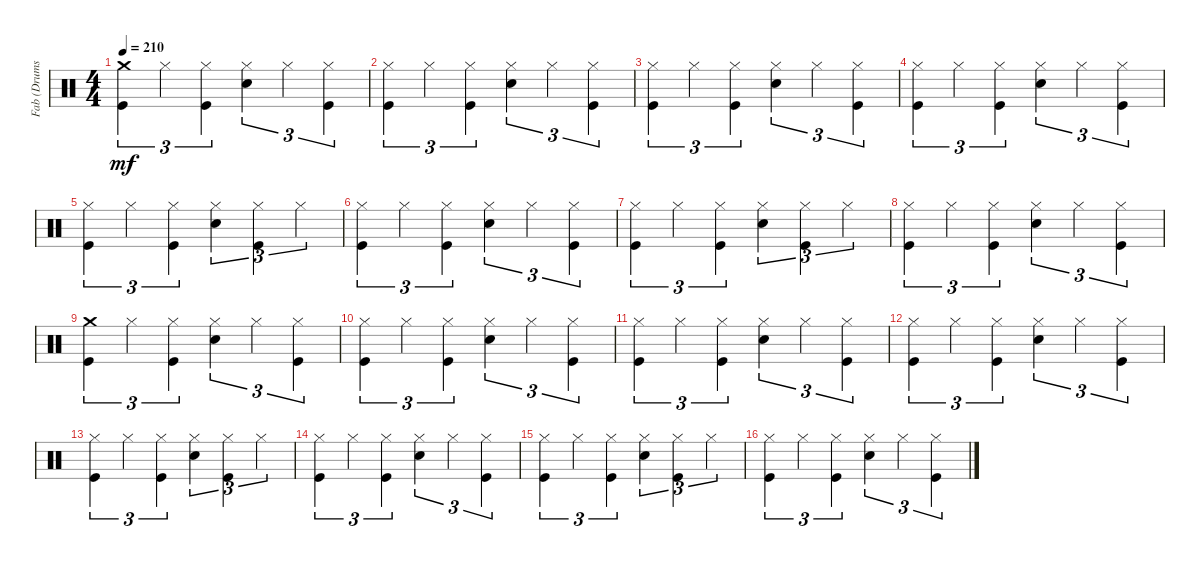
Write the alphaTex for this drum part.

\track ("Fab (Drums)" "Fab (Drums") {instrument percussion}
\staff {score}
\articulation defaults
\ts (4 4)
\tempo 210
\clef neutral
\ks c
("Kick (hit)" "Crash medium (hit)").4{tu (3 2) dy mf} "Hi-Hat (closed)".4{tu (3 2)} ("Hi-Hat (closed)" "Kick (hit)").4{tu (3 2)} ("Hi-Hat (closed)" "Snare (hit) 2").4{tu (3 2)} "Hi-Hat (closed)".4{tu (3 2)} ("Hi-Hat (closed)" "Kick (hit)").4{tu (3 2)} |
("Kick (hit)" "Hi-Hat (closed)").4{tu (3 2)} "Hi-Hat (closed)".4{tu (3 2)} ("Hi-Hat (closed)" "Kick (hit)").4{tu (3 2)} ("Hi-Hat (closed)" "Snare (hit) 2").4{tu (3 2)} "Hi-Hat (closed)".4{tu (3 2)} ("Hi-Hat (closed)" "Kick (hit)").4{tu (3 2)} |
("Kick (hit)" "Hi-Hat (closed)").4{tu (3 2)} "Hi-Hat (closed)".4{tu (3 2)} ("Hi-Hat (closed)" "Kick (hit)").4{tu (3 2)} ("Hi-Hat (closed)" "Snare (hit) 2").4{tu (3 2)} "Hi-Hat (closed)".4{tu (3 2)} ("Hi-Hat (closed)" "Kick (hit)").4{tu (3 2)} |
("Kick (hit)" "Hi-Hat (closed)").4{tu (3 2)} "Hi-Hat (closed)".4{tu (3 2)} ("Hi-Hat (closed)" "Kick (hit)").4{tu (3 2)} ("Hi-Hat (closed)" "Snare (hit) 2").4{tu (3 2)} "Hi-Hat (closed)".4{tu (3 2)} ("Hi-Hat (closed)" "Kick (hit)").4{tu (3 2)} |
("Kick (hit)" "Hi-Hat (closed)").4{tu (3 2)} "Hi-Hat (closed)".4{tu (3 2)} ("Hi-Hat (closed)" "Kick (hit)").4{tu (3 2)} ("Hi-Hat (closed)" "Snare (hit) 2").4{tu (3 2)} ("Hi-Hat (closed)" "Kick (hit)").4{tu (3 2)} "Hi-Hat (closed)".4{tu (3 2)} |
("Kick (hit)" "Hi-Hat (closed)").4{tu (3 2)} "Hi-Hat (closed)".4{tu (3 2)} ("Hi-Hat (closed)" "Kick (hit)").4{tu (3 2)} ("Hi-Hat (closed)" "Snare (hit) 2").4{tu (3 2)} "Hi-Hat (closed)".4{tu (3 2)} ("Hi-Hat (closed)" "Kick (hit)").4{tu (3 2)} |
("Kick (hit)" "Hi-Hat (closed)").4{tu (3 2)} "Hi-Hat (closed)".4{tu (3 2)} ("Hi-Hat (closed)" "Kick (hit)").4{tu (3 2)} ("Hi-Hat (closed)" "Snare (hit) 2").4{tu (3 2)} ("Hi-Hat (closed)" "Kick (hit)").4{tu (3 2)} "Hi-Hat (closed)".4{tu (3 2)} |
("Kick (hit)" "Hi-Hat (closed)").4{tu (3 2)} "Hi-Hat (closed)".4{tu (3 2)} ("Hi-Hat (closed)" "Kick (hit)").4{tu (3 2)} ("Hi-Hat (closed)" "Snare (hit) 2").4{tu (3 2)} "Hi-Hat (closed)".4{tu (3 2)} ("Hi-Hat (closed)" "Kick (hit)").4{tu (3 2)} |
("Kick (hit)" "Crash medium (hit)").4{tu (3 2)} "Hi-Hat (closed)".4{tu (3 2)} ("Hi-Hat (closed)" "Kick (hit)").4{tu (3 2)} ("Hi-Hat (closed)" "Snare (hit) 2").4{tu (3 2)} "Hi-Hat (closed)".4{tu (3 2)} ("Hi-Hat (closed)" "Kick (hit)").4{tu (3 2)} |
("Kick (hit)" "Hi-Hat (closed)").4{tu (3 2)} "Hi-Hat (closed)".4{tu (3 2)} ("Hi-Hat (closed)" "Kick (hit)").4{tu (3 2)} ("Hi-Hat (closed)" "Snare (hit) 2").4{tu (3 2)} "Hi-Hat (closed)".4{tu (3 2)} ("Hi-Hat (closed)" "Kick (hit)").4{tu (3 2)} |
("Kick (hit)" "Hi-Hat (closed)").4{tu (3 2)} "Hi-Hat (closed)".4{tu (3 2)} ("Hi-Hat (closed)" "Kick (hit)").4{tu (3 2)} ("Hi-Hat (closed)" "Snare (hit) 2").4{tu (3 2)} "Hi-Hat (closed)".4{tu (3 2)} ("Hi-Hat (closed)" "Kick (hit)").4{tu (3 2)} |
("Kick (hit)" "Hi-Hat (closed)").4{tu (3 2)} "Hi-Hat (closed)".4{tu (3 2)} ("Hi-Hat (closed)" "Kick (hit)").4{tu (3 2)} ("Hi-Hat (closed)" "Snare (hit) 2").4{tu (3 2)} "Hi-Hat (closed)".4{tu (3 2)} ("Hi-Hat (closed)" "Kick (hit)").4{tu (3 2)} |
("Kick (hit)" "Hi-Hat (closed)").4{tu (3 2)} "Hi-Hat (closed)".4{tu (3 2)} ("Hi-Hat (closed)" "Kick (hit)").4{tu (3 2)} ("Hi-Hat (closed)" "Snare (hit) 2").4{tu (3 2)} ("Hi-Hat (closed)" "Kick (hit)").4{tu (3 2)} "Hi-Hat (closed)".4{tu (3 2)} |
("Kick (hit)" "Hi-Hat (closed)").4{tu (3 2)} "Hi-Hat (closed)".4{tu (3 2)} ("Hi-Hat (closed)" "Kick (hit)").4{tu (3 2)} ("Hi-Hat (closed)" "Snare (hit) 2").4{tu (3 2)} "Hi-Hat (closed)".4{tu (3 2)} ("Hi-Hat (closed)" "Kick (hit)").4{tu (3 2)} |
("Kick (hit)" "Hi-Hat (closed)").4{tu (3 2)} "Hi-Hat (closed)".4{tu (3 2)} ("Hi-Hat (closed)" "Kick (hit)").4{tu (3 2)} ("Hi-Hat (closed)" "Snare (hit) 2").4{tu (3 2)} ("Hi-Hat (closed)" "Kick (hit)").4{tu (3 2)} "Hi-Hat (closed)".4{tu (3 2)} |
("Kick (hit)" "Hi-Hat (closed)").4{tu (3 2)} "Hi-Hat (closed)".4{tu (3 2)} ("Hi-Hat (closed)" "Kick (hit)").4{tu (3 2)} ("Hi-Hat (closed)" "Snare (hit) 2").4{tu (3 2)} "Hi-Hat (closed)".4{tu (3 2)} ("Hi-Hat (closed)" "Kick (hit)").4{tu (3 2)}
